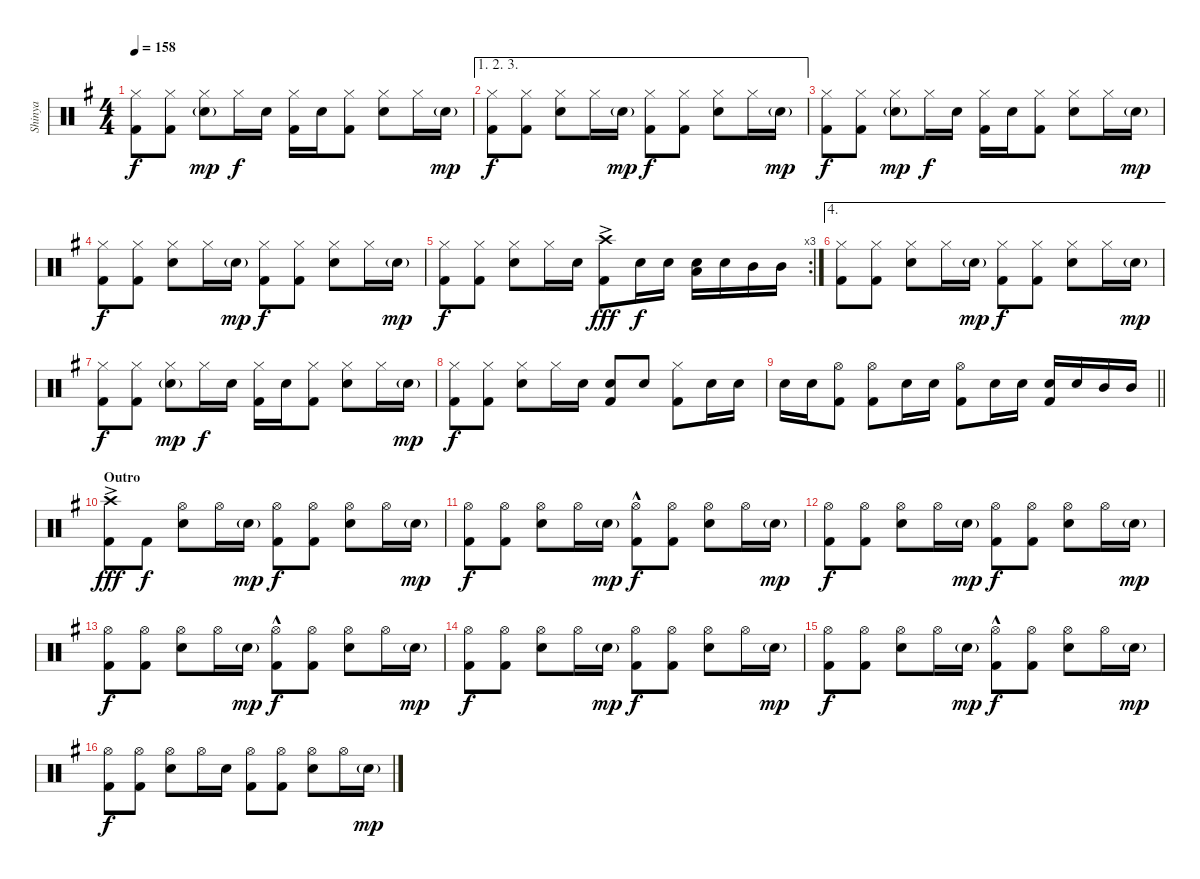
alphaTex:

\track ("Shinya" "Shinya") {instrument percussion}
\staff {score}
\articulation defaults
\ts (4 4)
\tempo 158
\clef neutral
\ks g
("Hi-Hat (closed)" "Kick (hit) 2").8{dy f} ("Hi-Hat (closed)" "Kick (hit) 2").8 ("Hi-Hat (closed)" "Snare (hit) 2"{g}).8{dy mp} "Hi-Hat (closed)".16{dy f} "Snare (hit) 2".16 ("Hi-Hat (closed)" "Kick (hit) 2").16 "Snare (hit) 2".16 ("Hi-Hat (closed)" "Kick (hit) 2").8 ("Hi-Hat (closed)" "Snare (hit) 2").8 "Hi-Hat (closed)".16 "Snare (hit) 2"{g}.16{dy mp} |
\ae (1 2 3)
("Hi-Hat (closed)" "Kick (hit) 2").8{dy f} ("Hi-Hat (closed)" "Kick (hit) 2").8 ("Hi-Hat (closed)" "Snare (hit) 2").8 "Hi-Hat (closed)".16 "Snare (hit) 2"{g}.16{dy mp} ("Hi-Hat (closed)" "Kick (hit) 2").8{dy f} ("Hi-Hat (closed)" "Kick (hit) 2").8 ("Hi-Hat (closed)" "Snare (hit) 2").8 "Hi-Hat (closed)".16 "Snare (hit) 2"{g}.16{dy mp} |
("Hi-Hat (closed)" "Kick (hit) 2").8{dy f} ("Hi-Hat (closed)" "Kick (hit) 2").8 ("Hi-Hat (closed)" "Snare (hit) 2"{g}).8{dy mp} "Hi-Hat (closed)".16{dy f} "Snare (hit) 2".16 ("Hi-Hat (closed)" "Kick (hit) 2").16 "Snare (hit) 2".16 ("Hi-Hat (closed)" "Kick (hit) 2").8 ("Hi-Hat (closed)" "Snare (hit) 2").8 "Hi-Hat (closed)".16 "Snare (hit) 2"{g}.16{dy mp} |
("Hi-Hat (closed)" "Kick (hit) 2").8{dy f} ("Hi-Hat (closed)" "Kick (hit) 2").8 ("Hi-Hat (closed)" "Snare (hit) 2").8 "Hi-Hat (closed)".16 "Snare (hit) 2"{g}.16{dy mp} ("Hi-Hat (closed)" "Kick (hit) 2").8{dy f} ("Hi-Hat (closed)" "Kick (hit) 2").8 ("Hi-Hat (closed)" "Snare (hit) 2").8 "Hi-Hat (closed)".16 "Snare (hit) 2"{g}.16{dy mp} |
\rc 3
("Hi-Hat (closed)" "Kick (hit) 2").8{dy f} ("Hi-Hat (closed)" "Kick (hit) 2").8 ("Hi-Hat (closed)" "Snare (hit) 2").8 "Hi-Hat (closed)".16 "Snare (hit) 2".16 ("Crash high (hit)"{ac} "Kick (hit) 2").8{dy fff} "Snare (hit) 2".16{dy f} "Snare (hit) 2".16 ("Low Floor Tom (hit)" "Snare (hit) 2").16 "Snare (hit) 2".16 "Mid Tom (hit)".16 "Mid Tom (hit)".16 |
\ae 4
("Hi-Hat (closed)" "Kick (hit) 2").8 ("Hi-Hat (closed)" "Kick (hit) 2").8 ("Hi-Hat (closed)" "Snare (hit) 2").8 "Hi-Hat (closed)".16 "Snare (hit) 2"{g}.16{dy mp} ("Hi-Hat (closed)" "Kick (hit) 2").8{dy f} ("Hi-Hat (closed)" "Kick (hit) 2").8 ("Hi-Hat (closed)" "Snare (hit) 2").8 "Hi-Hat (closed)".16 "Snare (hit) 2"{g}.16{dy mp} |
("Hi-Hat (closed)" "Kick (hit) 2").8{dy f} ("Hi-Hat (closed)" "Kick (hit) 2").8 ("Hi-Hat (closed)" "Snare (hit) 2"{g}).8{dy mp} "Hi-Hat (closed)".16{dy f} "Snare (hit) 2".16 ("Hi-Hat (closed)" "Kick (hit) 2").16 "Snare (hit) 2".16 ("Hi-Hat (closed)" "Kick (hit) 2").8 ("Hi-Hat (closed)" "Snare (hit) 2").8 "Hi-Hat (closed)".16 "Snare (hit) 2"{g}.16{dy mp} |
("Hi-Hat (closed)" "Kick (hit) 2").8{dy f} ("Hi-Hat (closed)" "Kick (hit) 2").8 ("Hi-Hat (closed)" "Snare (hit) 2").8 "Hi-Hat (closed)".16 "Snare (hit) 2".16 ("Snare (hit) 2" "Kick (hit) 2").8 "Snare (hit) 2".8 ("Hi-Hat (closed)" "Kick (hit) 2").8 "Snare (hit) 2".16 "Snare (hit) 2".16 |
\barLineRight lightlight "Snare (hit) 2".16 "Snare (hit) 2".16
("Hi-Hat (open)" "Kick (hit) 2").8 ("Hi-Hat (open)" "Kick (hit) 2").8 "Snare (hit) 2".16 "Snare (hit) 2".16 ("Hi-Hat (open)" "Kick (hit) 2").8 "Snare (hit) 2".16 "Snare (hit) 2".16 ("Snare (hit) 2" "Kick (hit) 2").16 "Snare (hit) 2".16 "Mid Tom (hit)".16 "Mid Tom (hit)".16 |
\section ("" "Outro")
("Crash high (hit)"{ac} "Kick (hit) 2").8{dy fff} "Kick (hit) 2".8{dy f} ("Hi-Hat (open)" "Snare (hit) 2").8 "Hi-Hat (open)".16 "Snare (hit) 2"{g}.16{dy mp} ("Hi-Hat (open)" "Kick (hit) 2").8{dy f} ("Hi-Hat (open)" "Kick (hit) 2").8 ("Hi-Hat (open)" "Snare (hit) 2").8 "Hi-Hat (open)".16 "Snare (hit) 2"{g}.16{dy mp} |
("Hi-Hat (open)" "Kick (hit) 2").8{dy f} ("Hi-Hat (open)" "Kick (hit) 2").8 ("Hi-Hat (open)" "Snare (hit) 2").8 "Hi-Hat (open)".16 "Snare (hit) 2"{g}.16{dy mp} ("Hi-Hat (open)" "Kick (hit) 2"{hac}).8{dy f} ("Hi-Hat (open)" "Kick (hit) 2").8 ("Hi-Hat (open)" "Snare (hit) 2").8 "Hi-Hat (open)".16 "Snare (hit) 2"{g}.16{dy mp} |
("Hi-Hat (open)" "Kick (hit) 2").8{dy f} ("Hi-Hat (open)" "Kick (hit) 2").8 ("Hi-Hat (open)" "Snare (hit) 2").8 "Hi-Hat (open)".16 "Snare (hit) 2"{g}.16{dy mp} ("Hi-Hat (open)" "Kick (hit) 2").8{dy f} ("Hi-Hat (open)" "Kick (hit) 2").8 ("Hi-Hat (open)" "Snare (hit) 2").8 "Hi-Hat (open)".16 "Snare (hit) 2"{g}.16{dy mp} |
("Hi-Hat (open)" "Kick (hit) 2").8{dy f} ("Hi-Hat (open)" "Kick (hit) 2").8 ("Hi-Hat (open)" "Snare (hit) 2").8 "Hi-Hat (open)".16 "Snare (hit) 2"{g}.16{dy mp} ("Hi-Hat (open)" "Kick (hit) 2"{hac}).8{dy f} ("Hi-Hat (open)" "Kick (hit) 2").8 ("Hi-Hat (open)" "Snare (hit) 2").8 "Hi-Hat (open)".16 "Snare (hit) 2"{g}.16{dy mp} |
("Hi-Hat (open)" "Kick (hit) 2").8{dy f} ("Hi-Hat (open)" "Kick (hit) 2").8 ("Hi-Hat (open)" "Snare (hit) 2").8 "Hi-Hat (open)".16 "Snare (hit) 2"{g}.16{dy mp} ("Hi-Hat (open)" "Kick (hit) 2").8{dy f} ("Hi-Hat (open)" "Kick (hit) 2").8 ("Hi-Hat (open)" "Snare (hit) 2").8 "Hi-Hat (open)".16 "Snare (hit) 2"{g}.16{dy mp} |
("Hi-Hat (open)" "Kick (hit) 2").8{dy f} ("Hi-Hat (open)" "Kick (hit) 2").8 ("Hi-Hat (open)" "Snare (hit) 2").8 "Hi-Hat (open)".16 "Snare (hit) 2"{g}.16{dy mp} ("Hi-Hat (open)" "Kick (hit) 2"{hac}).8{dy f} ("Hi-Hat (open)" "Kick (hit) 2").8 ("Hi-Hat (open)" "Snare (hit) 2").8 "Hi-Hat (open)".16 "Snare (hit) 2"{g}.16{dy mp} |
("Hi-Hat (open)" "Kick (hit) 2").8{dy f} ("Hi-Hat (open)" "Kick (hit) 2").8 ("Hi-Hat (open)" "Snare (hit) 2").8 "Hi-Hat (open)".16 "Snare (hit) 2".16 ("Hi-Hat (open)" "Kick (hit) 2").8 ("Hi-Hat (open)" "Kick (hit) 2").8 ("Hi-Hat (open)" "Snare (hit) 2").8 "Hi-Hat (open)".16 "Snare (hit) 2"{g}.16{dy mp}
